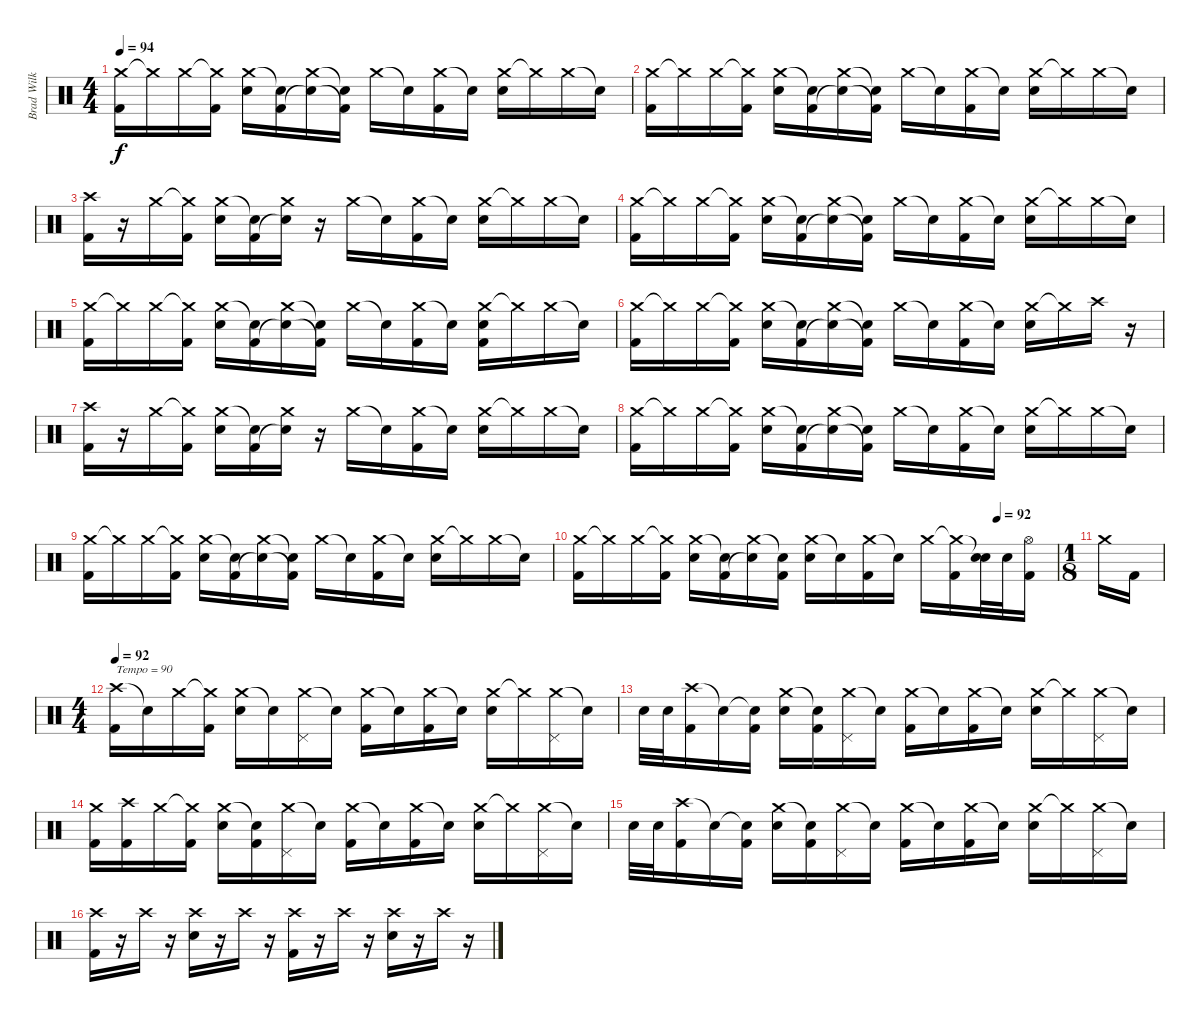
\track ("Brad Wilk (Drums)" "Brad Wilk ") {instrument percussion}
\staff {score}
\articulation defaults
\ts (4 4)
\tempo 94
\clef neutral
\ks c
("Crash medium (hit)" "Kick (hit) 2").16{dy f} "Crash medium (hit)"{t}.16 "Crash medium (hit)".16 ("Crash medium (hit)"{t} "Kick (hit) 2").16 ("Crash medium (hit)" "Snare (hit) 2").16 ("Snare (hit)"{t} "Kick (hit) 2").16 ("Crash medium (hit)" "Snare (hit)"{t}).16 ("Snare (hit)"{t} "Kick (hit) 2"{t}).16 "Crash medium (hit)".16 "Snare (hit)"{t}.16 ("Crash medium (hit)" "Kick (hit) 2").16 "Snare (hit)"{t}.16 ("Crash medium (hit)" "Snare (hit) 2").16 "Crash medium (hit)"{t}.16 "Crash medium (hit)".16 "Snare (hit)"{t}.16 |
("Crash medium (hit)" "Kick (hit) 2").16 "Crash medium (hit)"{t}.16 "Crash medium (hit)".16 ("Crash medium (hit)"{t} "Kick (hit) 2").16 ("Crash medium (hit)" "Snare (hit) 2").16 ("Snare (hit)"{t} "Kick (hit) 2").16 ("Crash medium (hit)" "Snare (hit)"{t}).16 ("Snare (hit)"{t} "Kick (hit) 2"{t}).16 "Crash medium (hit)".16 "Snare (hit)"{t}.16 ("Crash medium (hit)" "Kick (hit) 2").16 "Snare (hit)"{t}.16 ("Crash medium (hit)" "Snare (hit) 2").16 "Crash medium (hit)"{t}.16 "Crash medium (hit)".16 "Snare (hit)"{t}.16 |
("Crash high (hit)" "Kick (hit) 2").16 r.16 "Crash medium (hit)".16 ("Crash medium (hit)"{t} "Kick (hit) 2").16 ("Crash medium (hit)" "Snare (hit) 2").16 ("Snare (hit)"{t} "Kick (hit) 2").16 ("Crash medium (hit)" "Snare (hit)"{t}).16 r.16 "Crash medium (hit)".16 "Snare (hit)"{t}.16 ("Crash medium (hit)" "Kick (hit) 2").16 "Snare (hit)"{t}.16 ("Crash medium (hit)" "Snare (hit) 2").16 "Crash medium (hit)"{t}.16 "Crash medium (hit)".16 "Snare (hit)"{t}.16 |
("Crash medium (hit)" "Kick (hit) 2").16 "Crash medium (hit)"{t}.16 "Crash medium (hit)".16 ("Crash medium (hit)"{t} "Kick (hit) 2").16 ("Crash medium (hit)" "Snare (hit) 2").16 ("Snare (hit)"{t} "Kick (hit) 2").16 ("Crash medium (hit)" "Snare (hit)"{t}).16 ("Snare (hit)"{t} "Kick (hit) 2"{t}).16 "Crash medium (hit)".16 "Snare (hit)"{t}.16 ("Crash medium (hit)" "Kick (hit) 2").16 "Snare (hit)"{t}.16 ("Crash medium (hit)" "Snare (hit) 2").16 "Crash medium (hit)"{t}.16 "Crash medium (hit)".16 "Snare (hit)"{t}.16 |
("Crash medium (hit)" "Kick (hit) 2").16 "Crash medium (hit)"{t}.16 "Crash medium (hit)".16 ("Crash medium (hit)"{t} "Kick (hit) 2").16 ("Crash medium (hit)" "Snare (hit) 2").16 ("Snare (hit)"{t} "Kick (hit) 2").16 ("Crash medium (hit)" "Snare (hit)"{t}).16 ("Snare (hit)"{t} "Kick (hit) 2"{t}).16 "Crash medium (hit)".16 "Snare (hit)"{t}.16 ("Crash medium (hit)" "Kick (hit) 2").16 "Snare (hit)"{t}.16 ("Crash medium (hit)" "Snare (hit) 2" "Kick (hit) 2").16 "Crash medium (hit)"{t}.16 "Crash medium (hit)".16 "Snare (hit)"{t}.16 |
("Crash medium (hit)" "Kick (hit) 2").16 "Crash medium (hit)"{t}.16 "Crash medium (hit)".16 ("Crash medium (hit)"{t} "Kick (hit) 2").16 ("Crash medium (hit)" "Snare (hit) 2").16 ("Snare (hit)"{t} "Kick (hit) 2").16 ("Crash medium (hit)" "Snare (hit)"{t}).16 ("Snare (hit)"{t} "Kick (hit) 2"{t}).16 "Crash medium (hit)".16 "Snare (hit)"{t}.16 ("Crash medium (hit)" "Kick (hit) 2").16 "Snare (hit)"{t}.16 ("Crash medium (hit)" "Snare (hit) 2").16 "Crash medium (hit)"{t}.16 "Crash high (hit)".16 r.16 |
("Crash high (hit)" "Kick (hit) 2").16 r.16 "Crash medium (hit)".16 ("Crash medium (hit)"{t} "Kick (hit) 2").16 ("Crash medium (hit)" "Snare (hit) 2").16 ("Snare (hit)"{t} "Kick (hit) 2").16 ("Crash medium (hit)" "Snare (hit)"{t}).16 r.16 "Crash medium (hit)".16 "Snare (hit)"{t}.16 ("Crash medium (hit)" "Kick (hit) 2").16 "Snare (hit)"{t}.16 ("Crash medium (hit)" "Snare (hit) 2").16 "Crash medium (hit)"{t}.16 "Crash medium (hit)".16 "Snare (hit)"{t}.16 |
("Crash medium (hit)" "Kick (hit) 2").16 "Crash medium (hit)"{t}.16 "Crash medium (hit)".16 ("Crash medium (hit)"{t} "Kick (hit) 2").16 ("Crash medium (hit)" "Snare (hit) 2").16 ("Snare (hit)"{t} "Kick (hit) 2").16 ("Crash medium (hit)" "Snare (hit)"{t}).16 ("Snare (hit)"{t} "Kick (hit) 2"{t}).16 "Crash medium (hit)".16 "Snare (hit)"{t}.16 ("Crash medium (hit)" "Kick (hit) 2").16 "Snare (hit)"{t}.16 ("Crash medium (hit)" "Snare (hit) 2").16 "Crash medium (hit)"{t}.16 "Crash medium (hit)".16 "Snare (hit)"{t}.16 |
("Crash medium (hit)" "Kick (hit) 2").16 "Crash medium (hit)"{t}.16 "Crash medium (hit)".16 ("Crash medium (hit)"{t} "Kick (hit) 2").16 ("Crash medium (hit)" "Snare (hit) 2").16 ("Snare (hit)"{t} "Kick (hit) 2").16 ("Crash medium (hit)" "Snare (hit)"{t}).16 ("Snare (hit)"{t} "Kick (hit) 2"{t}).16 "Crash medium (hit)".16 "Snare (hit)"{t}.16 ("Crash medium (hit)" "Kick (hit) 2").16 "Snare (hit)"{t}.16 ("Crash medium (hit)" "Snare (hit) 2").16 "Crash medium (hit)"{t}.16 "Crash medium (hit)".16 "Snare (hit)"{t}.16 |
\tempo (92 0.875)
("Crash medium (hit)" "Kick (hit) 2").16 "Crash medium (hit)"{t}.16 "Crash medium (hit)".16 ("Crash medium (hit)"{t} "Kick (hit) 2").16 ("Crash medium (hit)" "Snare (hit) 2").16 ("Snare (hit)"{t} "Kick (hit) 2").16 ("Crash medium (hit)" "Snare (hit)"{t}).16 ("Snare (hit)"{t} "Kick (hit) 2").16 ("Crash medium (hit)" "Snare (hit) 2").16 "Snare (hit)"{t}.16 ("Crash medium (hit)" "Kick (hit) 2").16 "Snare (hit)"{t}.16 "Crash medium (hit)".16 ("Crash medium (hit)"{t} "Kick (hit) 2").16 ("Snare (hit)"{t} "Snare (hit) 2").32 "Snare (hit) 2".32 ("Hi-Hat (open)" "Kick (hit) 2").16 |
\ts (1 8)
"Crash medium (hit)".16 "Kick (hit) 2".16 |
\ts (4 4)
\tempo 92
("Crash high (hit)" "Kick (hit) 2").16{txt "Tempo = 90"} "Snare (hit)"{t}.16 "Crash medium (hit)".16 ("Crash medium (hit)"{t} "Kick (hit) 2").16 ("Crash medium (hit)" "Snare (hit) 2").16 "Snare (hit)"{t}.16 ("Crash medium (hit)" "Pedal Hi-Hat (hit)").16 "Snare (hit)"{t}.16 ("Crash medium (hit)" "Kick (hit) 2").16 "Snare (hit)"{t}.16 ("Crash medium (hit)" "Kick (hit) 2").16 "Snare (hit)"{t}.16 ("Crash medium (hit)" "Snare (hit) 2").16 "Crash medium (hit)"{t}.16 ("Crash medium (hit)" "Pedal Hi-Hat (hit)").16 "Snare (hit)"{t}.16 |
"Snare (hit) 2".32 "Snare (hit) 2".32 ("Crash high (hit)" "Kick (hit) 2").16 "Snare (hit)"{t}.16 ("Snare (hit)"{t} "Kick (hit) 2").16 ("Crash medium (hit)" "Snare (hit) 2").16 ("Snare (hit)"{t} "Kick (hit) 2").16 ("Crash medium (hit)" "Pedal Hi-Hat (hit)").16 "Snare (hit)"{t}.16 ("Crash medium (hit)" "Kick (hit) 2").16 "Snare (hit)"{t}.16 ("Crash medium (hit)" "Kick (hit) 2").16 "Snare (hit)"{t}.16 ("Crash medium (hit)" "Snare (hit) 2").16 "Crash medium (hit)"{t}.16 ("Crash medium (hit)" "Pedal Hi-Hat (hit)").16 "Snare (hit)"{t}.16 |
("Crash medium (hit)" "Kick (hit) 2").16 ("Crash high (hit)" "Kick (hit) 2").16 "Crash medium (hit)".16 ("Crash medium (hit)"{t} "Kick (hit) 2").16 ("Crash medium (hit)" "Snare (hit) 2").16 ("Snare (hit)"{t} "Kick (hit) 2").16 ("Crash medium (hit)" "Pedal Hi-Hat (hit)").16 "Snare (hit)"{t}.16 ("Crash medium (hit)" "Kick (hit) 2").16 "Snare (hit)"{t}.16 ("Crash medium (hit)" "Kick (hit) 2").16 "Snare (hit)"{t}.16 ("Crash medium (hit)" "Snare (hit) 2").16 "Crash medium (hit)"{t}.16 ("Crash medium (hit)" "Pedal Hi-Hat (hit)").16 "Snare (hit)"{t}.16 |
"Snare (hit) 2".32 "Snare (hit) 2".32 ("Crash high (hit)" "Kick (hit) 2").16 "Snare (hit)"{t}.16 ("Snare (hit)"{t} "Kick (hit) 2").16 ("Crash medium (hit)" "Snare (hit) 2").16 ("Snare (hit)"{t} "Kick (hit) 2").16 ("Crash medium (hit)" "Pedal Hi-Hat (hit)").16 "Snare (hit)"{t}.16 ("Crash medium (hit)" "Kick (hit) 2").16 "Snare (hit)"{t}.16 ("Crash medium (hit)" "Kick (hit) 2").16 "Snare (hit)"{t}.16 ("Crash medium (hit)" "Snare (hit) 2").16 "Crash medium (hit)"{t}.16 ("Crash medium (hit)" "Pedal Hi-Hat (hit)").16 "Snare (hit)"{t}.16 |
("Crash high (hit)" "Kick (hit) 2").16 r.16 "Crash high (hit)".16 r.16 ("Crash high (hit)" "Snare (hit) 2").16 r.16 "Crash high (hit)".16 r.16 ("Crash high (hit)" "Kick (hit) 2").16 r.16 "Crash high (hit)".16 r.16 ("Crash high (hit)" "Snare (hit) 2").16 r.16 "Crash high (hit)".16 r.16
